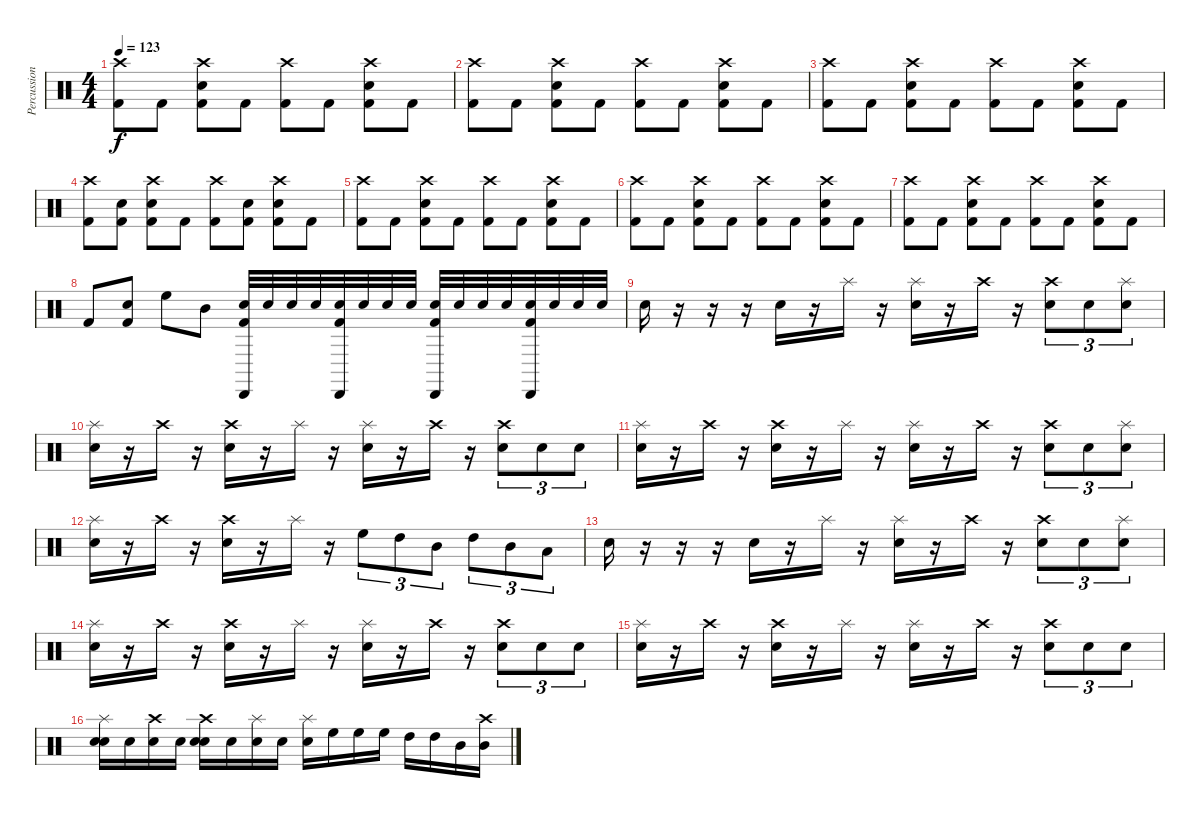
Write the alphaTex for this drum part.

\track ("Percussion" "Percussion") {instrument percussion}
\staff {score}
\articulation defaults
\ts (4 4)
\tempo 123
\clef neutral
\ks c
("Crash high (hit)" "Kick (hit) 2").8{dy f} "Kick (hit) 2".8 ("Crash high (hit)" "Electric Snare (hit)" "Kick (hit) 2").8 "Kick (hit) 2".8 ("Crash high (hit)" "Kick (hit) 2").8 "Kick (hit) 2".8 ("Crash high (hit)" "Electric Snare (hit)" "Kick (hit) 2").8 "Kick (hit) 2".8 |
("Crash high (hit)" "Kick (hit) 2").8 "Kick (hit) 2".8 ("Crash high (hit)" "Electric Snare (hit)" "Kick (hit) 2").8 "Kick (hit) 2".8 ("Crash high (hit)" "Kick (hit) 2").8 "Kick (hit) 2".8 ("Crash high (hit)" "Electric Snare (hit)" "Kick (hit) 2").8 "Kick (hit) 2".8 |
("Crash high (hit)" "Kick (hit) 2").8 "Kick (hit) 2".8 ("Crash high (hit)" "Electric Snare (hit)" "Kick (hit) 2").8 "Kick (hit) 2".8 ("Crash high (hit)" "Kick (hit) 2").8 "Kick (hit) 2".8 ("Crash high (hit)" "Electric Snare (hit)" "Kick (hit) 2").8 "Kick (hit) 2".8 |
("Crash high (hit)" "Kick (hit) 2").8 ("Electric Snare (hit)" "Kick (hit) 2").8 ("Crash high (hit)" "Electric Snare (hit)" "Kick (hit) 2").8 "Kick (hit) 2".8 ("Crash high (hit)" "Kick (hit) 2").8 ("Electric Snare (hit)" "Kick (hit) 2").8 ("Crash high (hit)" "Electric Snare (hit)" "Kick (hit) 2").8 "Kick (hit) 2".8 |
("Crash high (hit)" "Kick (hit) 2").8 "Kick (hit) 2".8 ("Crash high (hit)" "Electric Snare (hit)" "Kick (hit) 2").8 "Kick (hit) 2".8 ("Crash high (hit)" "Kick (hit) 2").8 "Kick (hit) 2".8 ("Crash high (hit)" "Electric Snare (hit)" "Kick (hit) 2").8 "Kick (hit) 2".8 |
("Crash high (hit)" "Kick (hit) 2").8 "Kick (hit) 2".8 ("Crash high (hit)" "Electric Snare (hit)" "Kick (hit) 2").8 "Kick (hit) 2".8 ("Crash high (hit)" "Kick (hit) 2").8 "Kick (hit) 2".8 ("Crash high (hit)" "Electric Snare (hit)" "Kick (hit) 2").8 "Kick (hit) 2".8 |
("Crash high (hit)" "Kick (hit) 2").8 "Kick (hit) 2".8 ("Crash high (hit)" "Electric Snare (hit)" "Kick (hit) 2").8 "Kick (hit) 2".8 ("Crash high (hit)" "Kick (hit) 2").8 "Kick (hit) 2".8 ("Crash high (hit)" "Electric Snare (hit)" "Kick (hit) 2").8 "Kick (hit) 2".8 |
"Kick (hit) 2".8 ("Electric Snare (hit)" "Kick (hit) 2").8 "High Floor Tom (hit)".8 "Mid Tom (hit)".8 ("Cabasa (hit)" "Electric Snare (hit)" "Kick (hit) 2").32 "Electric Snare (hit)".32 "Electric Snare (hit)".32 "Electric Snare (hit)".32 ("Cabasa (hit)" "Electric Snare (hit)" "Kick (hit) 2").32 "Electric Snare (hit)".32 "Electric Snare (hit)".32 "Electric Snare (hit)".32 ("Cabasa (hit)" "Electric Snare (hit)" "Kick (hit) 2").32 "Electric Snare (hit)".32 "Electric Snare (hit)".32 "Electric Snare (hit)".32 ("Cabasa (hit)" "Electric Snare (hit)" "Kick (hit) 2").32 "Electric Snare (hit)".32 "Electric Snare (hit)".32 "Electric Snare (hit)".32 |
"Electric Snare (hit)".16 r.16 r.16 r.16 "Electric Snare (hit)".16 r.16 "Splash (hit)".16 r.16 ("Splash (hit)" "Electric Snare (hit)").16 r.16 "Crash high (hit)".16 r.16 ("Crash high (hit)" "Electric Snare (hit)").8{tu (3 2)} "Electric Snare (hit)".8{tu (3 2)} ("Splash (hit)" "Electric Snare (hit)").8{tu (3 2)} |
("Splash (hit)" "Electric Snare (hit)").16 r.16 "Crash high (hit)".16 r.16 ("Crash high (hit)" "Electric Snare (hit)").16 r.16 "Splash (hit)".16 r.16 ("Splash (hit)" "Electric Snare (hit)").16 r.16 "Crash high (hit)".16 r.16 ("Crash high (hit)" "Electric Snare (hit)").8{tu (3 2)} "Electric Snare (hit)".8{tu (3 2)} "Electric Snare (hit)".8{tu (3 2)} |
("Splash (hit)" "Electric Snare (hit)").16 r.16 "Crash high (hit)".16 r.16 ("Crash high (hit)" "Electric Snare (hit)").16 r.16 "Splash (hit)".16 r.16 ("Splash (hit)" "Electric Snare (hit)").16 r.16 "Crash high (hit)".16 r.16 ("Crash high (hit)" "Electric Snare (hit)").8{tu (3 2)} "Electric Snare (hit)".8{tu (3 2)} ("Splash (hit)" "Electric Snare (hit)").8{tu (3 2)} |
("Splash (hit)" "Electric Snare (hit)").16 r.16 "Crash high (hit)".16 r.16 ("Crash high (hit)" "Electric Snare (hit)").16 r.16 "Splash (hit)".16 r.16 "High Floor Tom (hit)".8{tu (3 2)} "High Tom (hit)".8{tu (3 2)} "Mid Tom (hit)".8{tu (3 2)} "High Tom (hit)".8{tu (3 2)} "Mid Tom (hit)".8{tu (3 2)} "Low Tom (hit)".8{tu (3 2)} |
"Electric Snare (hit)".16 r.16 r.16 r.16 "Electric Snare (hit)".16 r.16 "Splash (hit)".16 r.16 ("Splash (hit)" "Electric Snare (hit)").16 r.16 "Crash high (hit)".16 r.16 ("Crash high (hit)" "Electric Snare (hit)").8{tu (3 2)} "Electric Snare (hit)".8{tu (3 2)} ("Splash (hit)" "Electric Snare (hit)").8{tu (3 2)} |
("Splash (hit)" "Electric Snare (hit)").16 r.16 "Crash high (hit)".16 r.16 ("Crash high (hit)" "Electric Snare (hit)").16 r.16 "Splash (hit)".16 r.16 ("Splash (hit)" "Electric Snare (hit)").16 r.16 "Crash high (hit)".16 r.16 ("Crash high (hit)" "Electric Snare (hit)").8{tu (3 2)} "Electric Snare (hit)".8{tu (3 2)} "Electric Snare (hit)".8{tu (3 2)} |
("Splash (hit)" "Electric Snare (hit)").16 r.16 "Crash high (hit)".16 r.16 ("Crash high (hit)" "Electric Snare (hit)").16 r.16 "Splash (hit)".16 r.16 ("Splash (hit)" "Electric Snare (hit)").16 r.16 "Crash high (hit)".16 r.16 ("Crash high (hit)" "Electric Snare (hit)").8{tu (3 2)} "Electric Snare (hit)".8{tu (3 2)} "Electric Snare (hit)".8{tu (3 2)} |
("Splash (hit)" "Electric Snare (hit)" "Electric Snare (hit)").16 "Electric Snare (hit)".16 ("Crash high (hit)" "Electric Snare (hit)").16 "Electric Snare (hit)".16 ("Crash high (hit)" "Electric Snare (hit)" "Electric Snare (hit)").16 "Electric Snare (hit)".16 ("Splash (hit)" "Electric Snare (hit)").16 "Electric Snare (hit)".16 ("Splash (hit)" "Electric Snare (hit)").16 "High Floor Tom (hit)".16 "High Floor Tom (hit)".16 "High Floor Tom (hit)".16 "High Tom (hit)".16 "High Tom (hit)".16 "Mid Tom (hit)".16 ("Crash high (hit)" "Mid Tom (hit)").16
